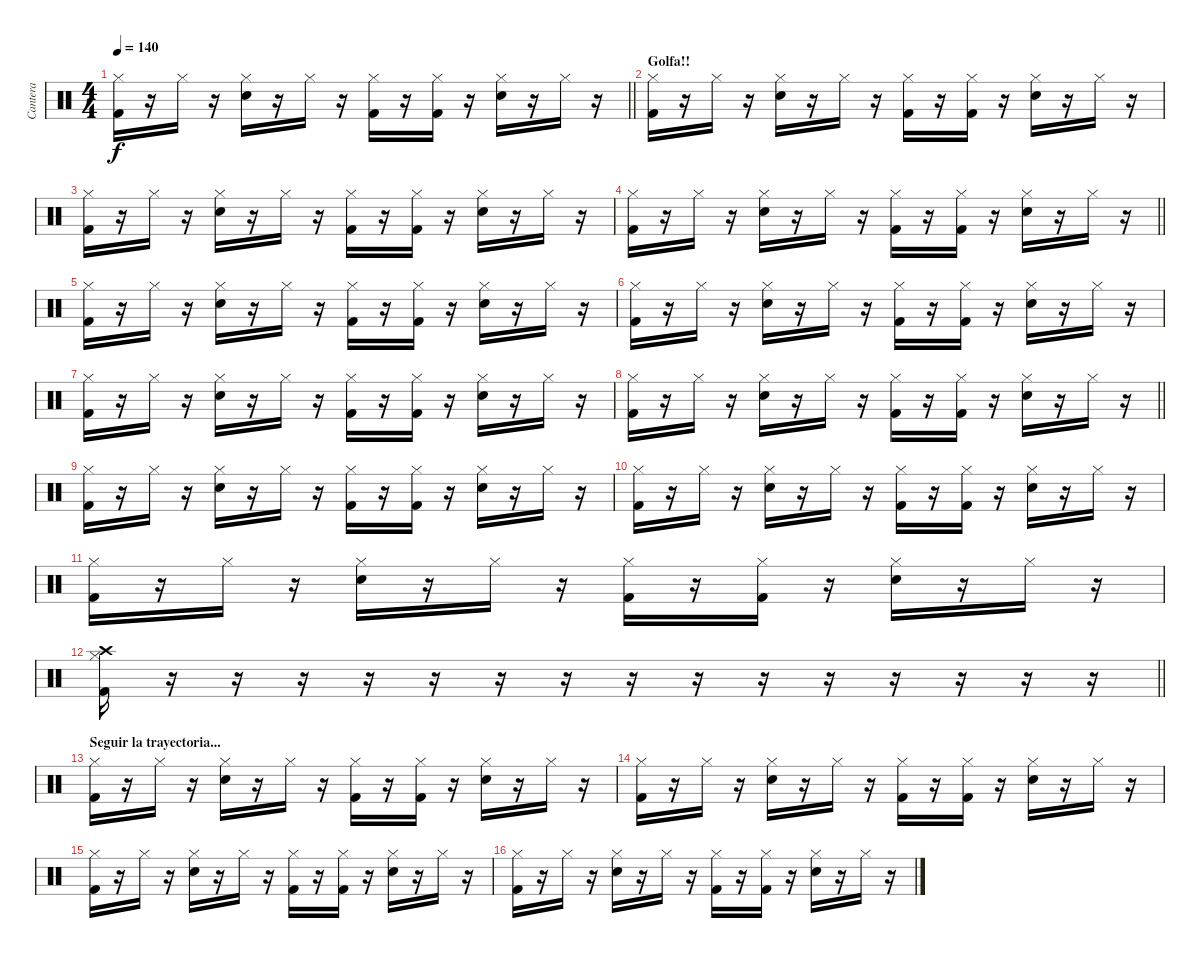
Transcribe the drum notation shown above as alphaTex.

\track ("Cantera" "Cantera") {instrument percussion}
\staff {score}
\articulation defaults
\ts (4 4)
\tempo 140
\clef neutral
\barLineRight lightlight
\ks c
("Hi-Hat (closed)" "Kick (hit) 2").16{dy f} r.16 "Hi-Hat (closed)".16 r.16 ("Hi-Hat (closed)" "Snare (hit) 2").16 r.16 "Hi-Hat (closed)".16 r.16 ("Hi-Hat (closed)" "Kick (hit) 2").16 r.16 ("Hi-Hat (closed)" "Kick (hit) 2").16 r.16 ("Hi-Hat (closed)" "Snare (hit) 2").16 r.16 "Hi-Hat (closed)".16 r.16 |
\section ("" "Golfa!!")
("Hi-Hat (closed)" "Kick (hit) 2").16 r.16 "Hi-Hat (closed)".16 r.16 ("Hi-Hat (closed)" "Snare (hit) 2").16 r.16 "Hi-Hat (closed)".16 r.16 ("Hi-Hat (closed)" "Kick (hit) 2").16 r.16 ("Hi-Hat (closed)" "Kick (hit) 2").16 r.16 ("Hi-Hat (closed)" "Snare (hit) 2").16 r.16 "Hi-Hat (closed)".16 r.16 |
("Hi-Hat (closed)" "Kick (hit) 2").16 r.16 "Hi-Hat (closed)".16 r.16 ("Hi-Hat (closed)" "Snare (hit) 2").16 r.16 "Hi-Hat (closed)".16 r.16 ("Hi-Hat (closed)" "Kick (hit) 2").16 r.16 ("Hi-Hat (closed)" "Kick (hit) 2").16 r.16 ("Hi-Hat (closed)" "Snare (hit) 2").16 r.16 "Hi-Hat (closed)".16 r.16 |
\barLineRight lightlight
("Hi-Hat (closed)" "Kick (hit) 2").16 r.16 "Hi-Hat (closed)".16 r.16 ("Hi-Hat (closed)" "Snare (hit) 2").16 r.16 "Hi-Hat (closed)".16 r.16 ("Hi-Hat (closed)" "Kick (hit) 2").16 r.16 ("Hi-Hat (closed)" "Kick (hit) 2").16 r.16 ("Hi-Hat (closed)" "Snare (hit) 2").16 r.16 "Hi-Hat (closed)".16 r.16 |
("Hi-Hat (closed)" "Kick (hit) 2").16 r.16 "Hi-Hat (closed)".16 r.16 ("Hi-Hat (closed)" "Snare (hit) 2").16 r.16 "Hi-Hat (closed)".16 r.16 ("Hi-Hat (closed)" "Kick (hit) 2").16 r.16 ("Hi-Hat (closed)" "Kick (hit) 2").16 r.16 ("Hi-Hat (closed)" "Snare (hit) 2").16 r.16 "Hi-Hat (closed)".16 r.16 |
("Hi-Hat (closed)" "Kick (hit) 2").16 r.16 "Hi-Hat (closed)".16 r.16 ("Hi-Hat (closed)" "Snare (hit) 2").16 r.16 "Hi-Hat (closed)".16 r.16 ("Hi-Hat (closed)" "Kick (hit) 2").16 r.16 ("Hi-Hat (closed)" "Kick (hit) 2").16 r.16 ("Hi-Hat (closed)" "Snare (hit) 2").16 r.16 "Hi-Hat (closed)".16 r.16 |
("Hi-Hat (closed)" "Kick (hit) 2").16 r.16 "Hi-Hat (closed)".16 r.16 ("Hi-Hat (closed)" "Snare (hit) 2").16 r.16 "Hi-Hat (closed)".16 r.16 ("Hi-Hat (closed)" "Kick (hit) 2").16 r.16 ("Hi-Hat (closed)" "Kick (hit) 2").16 r.16 ("Hi-Hat (closed)" "Snare (hit) 2").16 r.16 "Hi-Hat (closed)".16 r.16 |
\barLineRight lightlight
("Hi-Hat (closed)" "Kick (hit) 2").16 r.16 "Hi-Hat (closed)".16 r.16 ("Hi-Hat (closed)" "Snare (hit) 2").16 r.16 "Hi-Hat (closed)".16 r.16 ("Hi-Hat (closed)" "Kick (hit) 2").16 r.16 ("Hi-Hat (closed)" "Kick (hit) 2").16 r.16 ("Hi-Hat (closed)" "Snare (hit) 2").16 r.16 "Hi-Hat (closed)".16 r.16 |
("Hi-Hat (closed)" "Kick (hit) 2").16 r.16 "Hi-Hat (closed)".16 r.16 ("Hi-Hat (closed)" "Snare (hit) 2").16 r.16 "Hi-Hat (closed)".16 r.16 ("Hi-Hat (closed)" "Kick (hit) 2").16 r.16 ("Hi-Hat (closed)" "Kick (hit) 2").16 r.16 ("Hi-Hat (closed)" "Snare (hit) 2").16 r.16 "Hi-Hat (closed)".16 r.16 |
("Hi-Hat (closed)" "Kick (hit) 2").16 r.16 "Hi-Hat (closed)".16 r.16 ("Hi-Hat (closed)" "Snare (hit) 2").16 r.16 "Hi-Hat (closed)".16 r.16 ("Hi-Hat (closed)" "Kick (hit) 2").16 r.16 ("Hi-Hat (closed)" "Kick (hit) 2").16 r.16 ("Hi-Hat (closed)" "Snare (hit) 2").16 r.16 "Hi-Hat (closed)".16 r.16 |
("Hi-Hat (closed)" "Kick (hit) 2").16 r.16 "Hi-Hat (closed)".16 r.16 ("Hi-Hat (closed)" "Snare (hit) 2").16 r.16 "Hi-Hat (closed)".16 r.16 ("Hi-Hat (closed)" "Kick (hit) 2").16 r.16 ("Hi-Hat (closed)" "Kick (hit) 2").16 r.16 ("Hi-Hat (closed)" "Snare (hit) 2").16 r.16 "Hi-Hat (closed)".16 r.16 |
\barLineRight lightlight
("Crash high (hit)" "Hi-Hat (closed)" "Kick (hit) 2").16 r.16 r.16 r.16 r.16 r.16 r.16 r.16 r.16 r.16 r.16 r.16 r.16 r.16 r.16 r.16 |
\section ("" "Seguir la trayectoria...")
("Hi-Hat (closed)" "Kick (hit) 2").16 r.16 "Hi-Hat (closed)".16 r.16 ("Hi-Hat (closed)" "Snare (hit) 2").16 r.16 "Hi-Hat (closed)".16 r.16 ("Hi-Hat (closed)" "Kick (hit) 2").16 r.16 ("Hi-Hat (closed)" "Kick (hit) 2").16 r.16 ("Hi-Hat (closed)" "Snare (hit) 2").16 r.16 "Hi-Hat (closed)".16 r.16 |
("Hi-Hat (closed)" "Kick (hit) 2").16 r.16 "Hi-Hat (closed)".16 r.16 ("Hi-Hat (closed)" "Snare (hit) 2").16 r.16 "Hi-Hat (closed)".16 r.16 ("Hi-Hat (closed)" "Kick (hit) 2").16 r.16 ("Hi-Hat (closed)" "Kick (hit) 2").16 r.16 ("Hi-Hat (closed)" "Snare (hit) 2").16 r.16 "Hi-Hat (closed)".16 r.16 |
("Hi-Hat (closed)" "Kick (hit) 2").16 r.16 "Hi-Hat (closed)".16 r.16 ("Hi-Hat (closed)" "Snare (hit) 2").16 r.16 "Hi-Hat (closed)".16 r.16 ("Hi-Hat (closed)" "Kick (hit) 2").16 r.16 ("Hi-Hat (closed)" "Kick (hit) 2").16 r.16 ("Hi-Hat (closed)" "Snare (hit) 2").16 r.16 "Hi-Hat (closed)".16 r.16 |
("Hi-Hat (closed)" "Kick (hit) 2").16 r.16 "Hi-Hat (closed)".16 r.16 ("Hi-Hat (closed)" "Snare (hit) 2").16 r.16 "Hi-Hat (closed)".16 r.16 ("Hi-Hat (closed)" "Kick (hit) 2").16 r.16 ("Hi-Hat (closed)" "Kick (hit) 2").16 r.16 ("Hi-Hat (closed)" "Snare (hit) 2").16 r.16 "Hi-Hat (closed)".16 r.16
